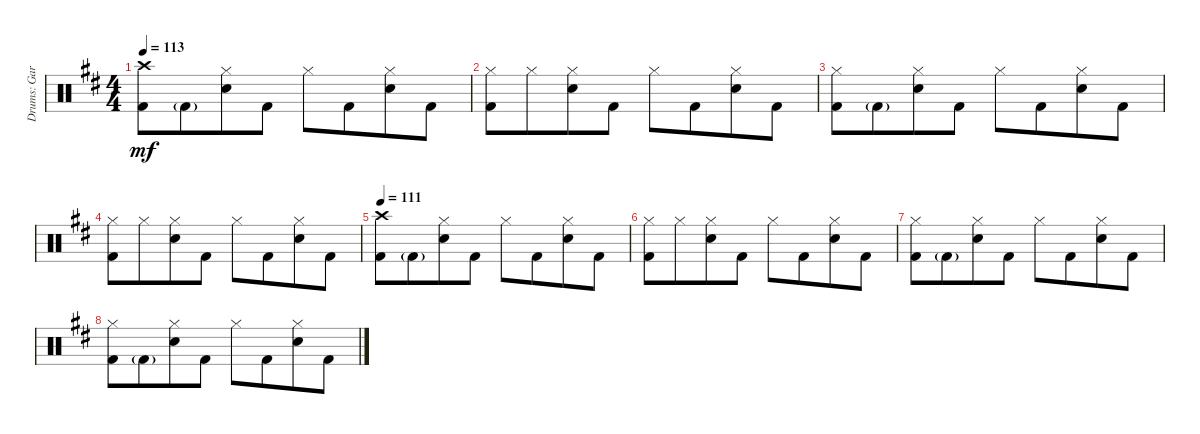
\track ("Drums: Gary" "Drums: Gar") {instrument percussion}
\staff {score}
\articulation defaults
\ts (4 4)
\tempo 113
\clef neutral
\ks d
("Crash high (hit)" "Kick (hit) 2").8{dy mf} "Kick (hit) 2"{g}.8{beam merge} ("Hi-Hat (closed)" "Snare (hit) 2").8 "Kick (hit) 2".8 "Hi-Hat (closed)".8 "Kick (hit) 2".8{beam merge} ("Hi-Hat (closed)" "Snare (hit) 2").8 "Kick (hit) 2".8 |
("Hi-Hat (closed)" "Kick (hit) 2").8 "Hi-Hat (closed)".8{beam merge} ("Hi-Hat (closed)" "Snare (hit) 2").8 "Kick (hit) 2".8 "Hi-Hat (closed)".8 "Kick (hit) 2".8{beam merge} ("Hi-Hat (closed)" "Snare (hit) 2").8 "Kick (hit) 2".8 |
("Hi-Hat (closed)" "Kick (hit) 2").8 "Kick (hit) 2"{g}.8{beam merge} ("Hi-Hat (closed)" "Snare (hit) 2").8 "Kick (hit) 2".8 "Hi-Hat (closed)".8 "Kick (hit) 2".8{beam merge} ("Hi-Hat (closed)" "Snare (hit) 2").8 "Kick (hit) 2".8 |
("Hi-Hat (closed)" "Kick (hit) 2").8 "Hi-Hat (closed)".8{beam merge} ("Hi-Hat (closed)" "Snare (hit) 2").8 "Kick (hit) 2".8 "Hi-Hat (closed)".8 "Kick (hit) 2".8{beam merge} ("Hi-Hat (closed)" "Snare (hit) 2").8 "Kick (hit) 2".8 |
\tempo 111
("Crash high (hit)" "Kick (hit) 2").8 "Kick (hit) 2"{g}.8{beam merge} ("Hi-Hat (closed)" "Snare (hit) 2").8 "Kick (hit) 2".8 "Hi-Hat (closed)".8 "Kick (hit) 2".8{beam merge} ("Hi-Hat (closed)" "Snare (hit) 2").8 "Kick (hit) 2".8 |
("Hi-Hat (closed)" "Kick (hit) 2").8 "Hi-Hat (closed)".8{beam merge} ("Hi-Hat (closed)" "Snare (hit) 2").8 "Kick (hit) 2".8 "Hi-Hat (closed)".8 "Kick (hit) 2".8{beam merge} ("Hi-Hat (closed)" "Snare (hit) 2").8 "Kick (hit) 2".8 |
("Hi-Hat (closed)" "Kick (hit) 2").8 "Kick (hit) 2"{g}.8{beam merge} ("Hi-Hat (closed)" "Snare (hit) 2").8 "Kick (hit) 2".8 "Hi-Hat (closed)".8 "Kick (hit) 2".8{beam merge} ("Hi-Hat (closed)" "Snare (hit) 2").8 "Kick (hit) 2".8 |
("Hi-Hat (closed)" "Kick (hit) 2").8 "Kick (hit) 2"{g}.8{beam merge} ("Hi-Hat (closed)" "Snare (hit) 2").8 "Kick (hit) 2".8 "Hi-Hat (closed)".8 "Kick (hit) 2".8{beam merge} ("Hi-Hat (closed)" "Snare (hit) 2").8 "Kick (hit) 2".8
